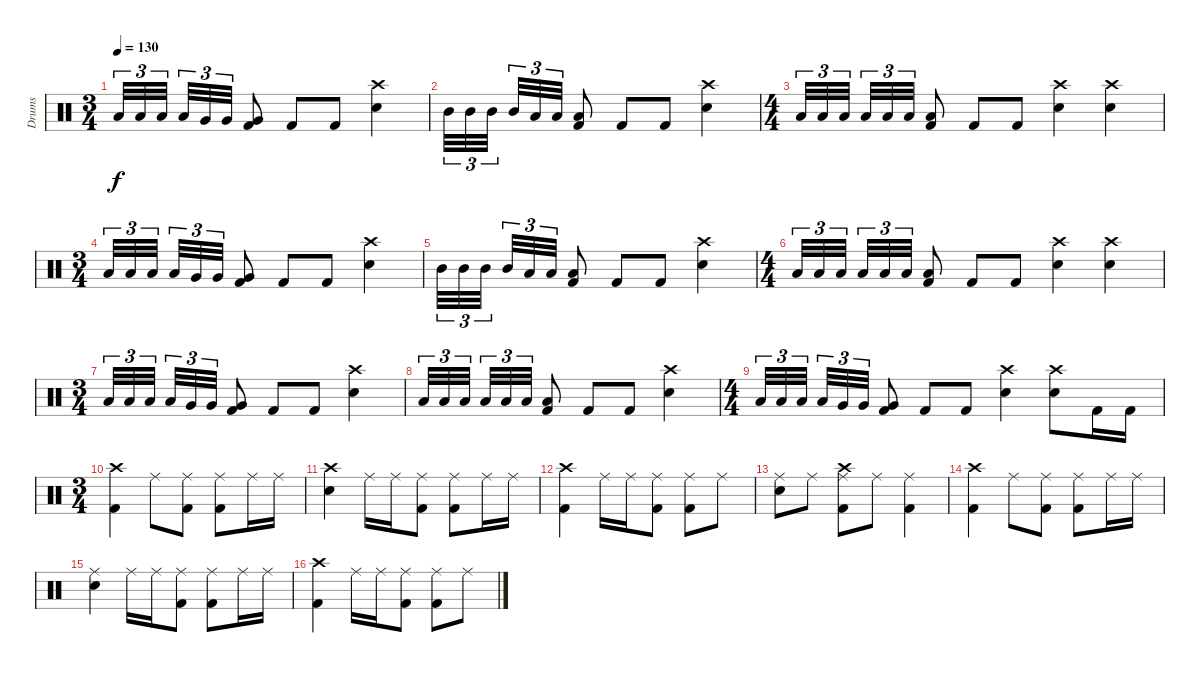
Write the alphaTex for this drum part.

\track ("Drums" "Drums") {instrument percussion}
\staff {score}
\articulation defaults
\ts (3 4)
\tempo 130
\clef neutral
\ks c "Low Floor Tom (hit)".32{tu (3 2) dy f} "Low Floor Tom (hit)".32{tu (3 2)} "Low Floor Tom (hit)".32{tu (3 2)} "Low Floor Tom (hit)".32{tu (3 2)} "Very Low Tom (hit)".32{tu (3 2)} "Very Low Tom (hit)".32{tu (3 2)}
("Very Low Tom (hit)" "Kick (hit) 2").8 "Kick (hit) 2".8 "Kick (hit) 2".8 ("Crash high (hit)" "Snare (hit) 2").4 |
"Mid Tom (hit)".32{tu (3 2)} "Mid Tom (hit)".32{tu (3 2)} "Mid Tom (hit)".32{tu (3 2)} "Mid Tom (hit)".32{tu (3 2)} "Low Tom (hit)".32{tu (3 2)} "Low Tom (hit)".32{tu (3 2)} ("Low Tom (hit)" "Kick (hit) 2").8 "Kick (hit) 2".8 "Kick (hit) 2".8 ("Crash high (hit)" "Snare (hit) 2").4 |
\ts (4 4)
"Low Tom (hit)".32{tu (3 2)} "Low Tom (hit)".32{tu (3 2)} "Low Tom (hit)".32{tu (3 2)} "Low Tom (hit)".32{tu (3 2)} "Low Floor Tom (hit)".32{tu (3 2)} "Low Floor Tom (hit)".32{tu (3 2)} ("Low Floor Tom (hit)" "Kick (hit) 2").8 "Kick (hit) 2".8 "Kick (hit) 2".8 ("Crash high (hit)" "Snare (hit) 2").4 ("Crash high (hit)" "Snare (hit) 2").4 |
\ts (3 4)
"Low Floor Tom (hit)".32{tu (3 2)} "Low Floor Tom (hit)".32{tu (3 2)} "Low Floor Tom (hit)".32{tu (3 2)} "Low Floor Tom (hit)".32{tu (3 2)} "Very Low Tom (hit)".32{tu (3 2)} "Very Low Tom (hit)".32{tu (3 2)} ("Very Low Tom (hit)" "Kick (hit) 2").8 "Kick (hit) 2".8 "Kick (hit) 2".8 ("Crash high (hit)" "Snare (hit) 2").4 |
"Mid Tom (hit)".32{tu (3 2)} "Mid Tom (hit)".32{tu (3 2)} "Mid Tom (hit)".32{tu (3 2)} "Mid Tom (hit)".32{tu (3 2)} "Low Tom (hit)".32{tu (3 2)} "Low Tom (hit)".32{tu (3 2)} ("Low Tom (hit)" "Kick (hit) 2").8 "Kick (hit) 2".8 "Kick (hit) 2".8 ("Crash high (hit)" "Snare (hit) 2").4 |
\ts (4 4)
"Low Tom (hit)".32{tu (3 2)} "Low Tom (hit)".32{tu (3 2)} "Low Tom (hit)".32{tu (3 2)} "Low Tom (hit)".32{tu (3 2)} "Low Floor Tom (hit)".32{tu (3 2)} "Low Floor Tom (hit)".32{tu (3 2)} ("Low Floor Tom (hit)" "Kick (hit) 2").8 "Kick (hit) 2".8 "Kick (hit) 2".8 ("Crash high (hit)" "Snare (hit) 2").4 ("Crash high (hit)" "Snare (hit) 2").4 |
\ts (3 4)
"Low Floor Tom (hit)".32{tu (3 2)} "Low Floor Tom (hit)".32{tu (3 2)} "Low Floor Tom (hit)".32{tu (3 2)} "Low Floor Tom (hit)".32{tu (3 2)} "Very Low Tom (hit)".32{tu (3 2)} "Very Low Tom (hit)".32{tu (3 2)} ("Very Low Tom (hit)" "Kick (hit) 2").8 "Kick (hit) 2".8 "Kick (hit) 2".8 ("Crash high (hit)" "Snare (hit) 2").4 |
"Low Tom (hit)".32{tu (3 2)} "Low Tom (hit)".32{tu (3 2)} "Low Tom (hit)".32{tu (3 2)} "Low Tom (hit)".32{tu (3 2)} "Low Floor Tom (hit)".32{tu (3 2)} "Low Floor Tom (hit)".32{tu (3 2)} ("Low Floor Tom (hit)" "Kick (hit) 2").8 "Kick (hit) 2".8 "Kick (hit) 2".8 ("Crash high (hit)" "Snare (hit) 2").4 |
\ts (4 4)
"Low Floor Tom (hit)".32{tu (3 2)} "Low Floor Tom (hit)".32{tu (3 2)} "Low Floor Tom (hit)".32{tu (3 2)} "Low Floor Tom (hit)".32{tu (3 2)} "Very Low Tom (hit)".32{tu (3 2)} "Very Low Tom (hit)".32{tu (3 2)} ("Very Low Tom (hit)" "Kick (hit) 2").8 "Kick (hit) 2".8 "Kick (hit) 2".8 ("Crash high (hit)" "Snare (hit) 2").4 ("Crash high (hit)" "Snare (hit) 2").8 "Kick (hit) 2".16 "Kick (hit) 2".16 |
\ts (3 4)
("Crash high (hit)" "Kick (hit) 2").4 "Ride (middle)".8 ("Ride (middle)" "Kick (hit) 2").8 ("Ride (middle)" "Kick (hit) 2").8 "Ride (middle)".16 "Ride (middle)".16 |
("Crash high (hit)" "Snare (hit) 2").4 "Ride (middle)".16 "Ride (middle)".16 ("Ride (middle)" "Kick (hit) 2").8 ("Ride (middle)" "Kick (hit) 2").8 "Ride (middle)".16 "Ride (middle)".16 |
("Crash high (hit)" "Kick (hit) 2").4 "Ride (middle)".16 "Ride (middle)".16 ("Ride (middle)" "Kick (hit) 2").8 ("Ride (middle)" "Kick (hit) 2").8 "Ride (middle)".8 |
("Ride (middle)" "Snare (hit) 2").8 "Ride (middle)".8 ("Crash high (hit)" "Ride (middle)" "Kick (hit) 2").8 "Ride (middle)".8 ("Ride (middle)" "Kick (hit) 2").4 |
("Crash high (hit)" "Kick (hit) 2").4 "Ride (middle)".8 ("Ride (middle)" "Kick (hit) 2").8 ("Ride (middle)" "Kick (hit) 2").8 "Ride (middle)".16 "Ride (middle)".16 |
("Ride (middle)" "Snare (hit) 2").4 "Ride (middle)".16 "Ride (middle)".16 ("Ride (middle)" "Kick (hit) 2").8 ("Ride (middle)" "Kick (hit) 2").8 "Ride (middle)".16 "Ride (middle)".16 |
("Crash high (hit)" "Kick (hit) 2").4 "Ride (middle)".16 "Ride (middle)".16 ("Ride (middle)" "Kick (hit) 2").8 ("Ride (middle)" "Kick (hit) 2").8 "Ride (middle)".8
